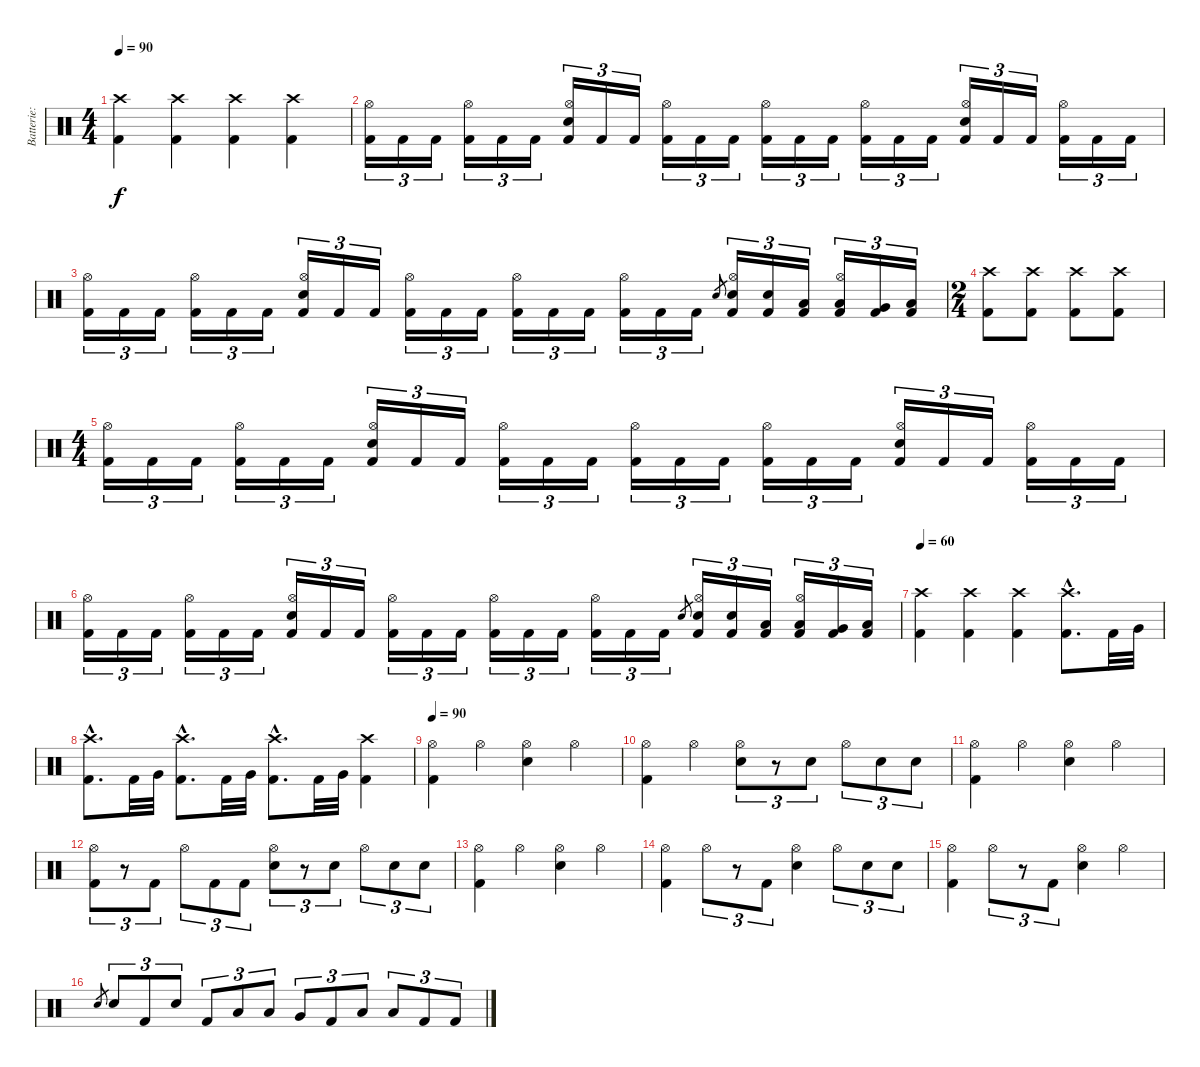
\track ("Batterie: Paul" "Batterie: ") {instrument percussion}
\staff {score}
\articulation defaults
\ts (4 4)
\tempo 90
\clef neutral
\ks c
("Crash high (hit)" "Kick (hit) 2").4{dy f} ("Crash high (hit)" "Kick (hit) 2").4 ("Crash high (hit)" "Kick (hit) 2").4 ("Crash high (hit)" "Kick (hit) 2").4 |
("Hi-Hat (open)" "Kick (hit) 2").16{tu (3 2)} "Kick (hit) 2".16{tu (3 2)} "Kick (hit) 2".16{tu (3 2)} ("Hi-Hat (open)" "Kick (hit) 2").16{tu (3 2)} "Kick (hit) 2".16{tu (3 2)} "Kick (hit) 2".16{tu (3 2)} ("Hi-Hat (open)" "Snare (hit) 2" "Kick (hit) 2").16{tu (3 2)} "Kick (hit) 2".16{tu (3 2)} "Kick (hit) 2".16{tu (3 2)} ("Hi-Hat (open)" "Kick (hit) 2").16{tu (3 2)} "Kick (hit) 2".16{tu (3 2)} "Kick (hit) 2".16{tu (3 2)} ("Hi-Hat (open)" "Kick (hit) 2").16{tu (3 2)} "Kick (hit) 2".16{tu (3 2)} "Kick (hit) 2".16{tu (3 2)} ("Hi-Hat (open)" "Kick (hit) 2").16{tu (3 2)} "Kick (hit) 2".16{tu (3 2)} "Kick (hit) 2".16{tu (3 2)} ("Hi-Hat (open)" "Snare (hit) 2" "Kick (hit) 2").16{tu (3 2)} "Kick (hit) 2".16{tu (3 2)} "Kick (hit) 2".16{tu (3 2)} ("Hi-Hat (open)" "Kick (hit) 2").16{tu (3 2)} "Kick (hit) 2".16{tu (3 2)} "Kick (hit) 2".16{tu (3 2)} |
("Hi-Hat (open)" "Kick (hit) 2").16{tu (3 2)} "Kick (hit) 2".16{tu (3 2)} "Kick (hit) 2".16{tu (3 2)} ("Hi-Hat (open)" "Kick (hit) 2").16{tu (3 2)} "Kick (hit) 2".16{tu (3 2)} "Kick (hit) 2".16{tu (3 2)} ("Hi-Hat (open)" "Snare (hit) 2" "Kick (hit) 2").16{tu (3 2)} "Kick (hit) 2".16{tu (3 2)} "Kick (hit) 2".16{tu (3 2)} ("Hi-Hat (open)" "Kick (hit) 2").16{tu (3 2)} "Kick (hit) 2".16{tu (3 2)} "Kick (hit) 2".16{tu (3 2)} ("Hi-Hat (open)" "Kick (hit) 2").16{tu (3 2)} "Kick (hit) 2".16{tu (3 2)} "Kick (hit) 2".16{tu (3 2)} ("Hi-Hat (open)" "Kick (hit) 2").16{tu (3 2)} "Kick (hit) 2".16{tu (3 2)} "Kick (hit) 2".16{tu (3 2)} "Snare (hit) 2".8{gr} ("Hi-Hat (open)" "Snare (hit) 2" "Kick (hit) 2").16{tu (3 2)} ("Snare (hit) 2" "Kick (hit) 2").16{tu (3 2)} ("Low Tom (hit)" "Kick (hit) 2").16{tu (3 2)} ("Hi-Hat (open)" "Low Tom (hit)" "Kick (hit) 2").16{tu (3 2)} ("Very Low Tom (hit)" "Kick (hit) 2").16{tu (3 2)} ("Low Floor Tom (hit)" "Kick (hit) 2").16{tu (3 2)} |
\ts (2 4)
("Crash high (hit)" "Kick (hit) 2").8 ("Crash high (hit)" "Kick (hit) 2").8 ("Crash high (hit)" "Kick (hit) 2").8 ("Crash high (hit)" "Kick (hit) 2").8 |
\ts (4 4)
("Hi-Hat (open)" "Kick (hit) 2").16{tu (3 2)} "Kick (hit) 2".16{tu (3 2)} "Kick (hit) 2".16{tu (3 2)} ("Hi-Hat (open)" "Kick (hit) 2").16{tu (3 2)} "Kick (hit) 2".16{tu (3 2)} "Kick (hit) 2".16{tu (3 2)} ("Hi-Hat (open)" "Snare (hit) 2" "Kick (hit) 2").16{tu (3 2)} "Kick (hit) 2".16{tu (3 2)} "Kick (hit) 2".16{tu (3 2)} ("Hi-Hat (open)" "Kick (hit) 2").16{tu (3 2)} "Kick (hit) 2".16{tu (3 2)} "Kick (hit) 2".16{tu (3 2)} ("Hi-Hat (open)" "Kick (hit) 2").16{tu (3 2)} "Kick (hit) 2".16{tu (3 2)} "Kick (hit) 2".16{tu (3 2)} ("Hi-Hat (open)" "Kick (hit) 2").16{tu (3 2)} "Kick (hit) 2".16{tu (3 2)} "Kick (hit) 2".16{tu (3 2)} ("Hi-Hat (open)" "Snare (hit) 2" "Kick (hit) 2").16{tu (3 2)} "Kick (hit) 2".16{tu (3 2)} "Kick (hit) 2".16{tu (3 2)} ("Hi-Hat (open)" "Kick (hit) 2").16{tu (3 2)} "Kick (hit) 2".16{tu (3 2)} "Kick (hit) 2".16{tu (3 2)} |
("Hi-Hat (open)" "Kick (hit) 2").16{tu (3 2)} "Kick (hit) 2".16{tu (3 2)} "Kick (hit) 2".16{tu (3 2)} ("Hi-Hat (open)" "Kick (hit) 2").16{tu (3 2)} "Kick (hit) 2".16{tu (3 2)} "Kick (hit) 2".16{tu (3 2)} ("Hi-Hat (open)" "Snare (hit) 2" "Kick (hit) 2").16{tu (3 2)} "Kick (hit) 2".16{tu (3 2)} "Kick (hit) 2".16{tu (3 2)} ("Hi-Hat (open)" "Kick (hit) 2").16{tu (3 2)} "Kick (hit) 2".16{tu (3 2)} "Kick (hit) 2".16{tu (3 2)} ("Hi-Hat (open)" "Kick (hit) 2").16{tu (3 2)} "Kick (hit) 2".16{tu (3 2)} "Kick (hit) 2".16{tu (3 2)} ("Hi-Hat (open)" "Kick (hit) 2").16{tu (3 2)} "Kick (hit) 2".16{tu (3 2)} "Kick (hit) 2".16{tu (3 2)} "Snare (hit) 2".8{gr} ("Hi-Hat (open)" "Snare (hit) 2" "Kick (hit) 2").16{tu (3 2)} ("Snare (hit) 2" "Kick (hit) 2").16{tu (3 2)} ("Low Tom (hit)" "Kick (hit) 2").16{tu (3 2)} ("Hi-Hat (open)" "Low Tom (hit)" "Kick (hit) 2").16{tu (3 2)} ("Very Low Tom (hit)" "Kick (hit) 2").16{tu (3 2)} ("Low Floor Tom (hit)" "Kick (hit) 2").16{tu (3 2)} |
\tempo 60
("Crash high (hit)" "Kick (hit) 2").4 ("Crash high (hit)" "Kick (hit) 2").4 ("Crash high (hit)" "Kick (hit) 2").4 ("Crash high (hit)"{hac} "Kick (hit) 2"{hac}).8{d} "Kick (hit) 2".32 "Very Low Tom (hit)".32 |
("Crash high (hit)"{hac} "Kick (hit) 2"{hac}).8{d} "Kick (hit) 2".32 "Very Low Tom (hit)".32 ("Crash high (hit)"{hac} "Kick (hit) 2"{hac}).8{d} "Kick (hit) 2".32 "Very Low Tom (hit)".32 ("Crash high (hit)"{hac} "Kick (hit) 2"{hac}).8{d} "Kick (hit) 2".32 "Very Low Tom (hit)".32 ("Crash high (hit)" "Kick (hit) 2").4 |
\tempo 90
("Hi-Hat (open)" "Kick (hit) 2").4 "Hi-Hat (open)".4 ("Hi-Hat (open)" "Snare (hit) 2").4 "Hi-Hat (open)".4 |
("Hi-Hat (open)" "Kick (hit) 2").4 "Hi-Hat (open)".4 ("Hi-Hat (open)" "Snare (hit) 2").8{tu (3 2)} r.8{tu (3 2)} "Snare (hit) 2".8{tu (3 2)} "Hi-Hat (open)".8{tu (3 2)} "Snare (hit) 2".8{tu (3 2)} "Snare (hit) 2".8{tu (3 2)} |
("Hi-Hat (open)" "Kick (hit) 2").4 "Hi-Hat (open)".4 ("Hi-Hat (open)" "Snare (hit) 2").4 "Hi-Hat (open)".4 |
("Hi-Hat (open)" "Kick (hit) 2").8{tu (3 2)} r.8{tu (3 2)} "Kick (hit) 2".8{tu (3 2)} "Hi-Hat (open)".8{tu (3 2)} "Kick (hit) 2".8{tu (3 2)} "Kick (hit) 2".8{tu (3 2)} ("Hi-Hat (open)" "Snare (hit) 2").8{tu (3 2)} r.8{tu (3 2)} "Snare (hit) 2".8{tu (3 2)} "Hi-Hat (open)".8{tu (3 2)} "Snare (hit) 2".8{tu (3 2)} "Snare (hit) 2".8{tu (3 2)} |
("Hi-Hat (open)" "Kick (hit) 2").4 "Hi-Hat (open)".4 ("Hi-Hat (open)" "Snare (hit) 2").4 "Hi-Hat (open)".4 |
("Hi-Hat (open)" "Kick (hit) 2").4 "Hi-Hat (open)".8{tu (3 2)} r.8{tu (3 2)} "Kick (hit) 2".8{tu (3 2)} ("Hi-Hat (open)" "Snare (hit) 2").4 "Hi-Hat (open)".8{tu (3 2)} "Snare (hit) 2".8{tu (3 2)} "Snare (hit) 2".8{tu (3 2)} |
("Hi-Hat (open)" "Kick (hit) 2").4 "Hi-Hat (open)".8{tu (3 2)} r.8{tu (3 2)} "Kick (hit) 2".8{tu (3 2)} ("Hi-Hat (open)" "Snare (hit) 2").4 "Hi-Hat (open)".4 |
"Snare (hit) 2".8{gr} "Snare (hit) 2".8{tu (3 2)} "Kick (hit) 2".8{tu (3 2)} "Snare (hit) 2".8{tu (3 2)} "Kick (hit) 2".8{tu (3 2)} "Low Tom (hit)".8{tu (3 2)} "Low Tom (hit)".8{tu (3 2)} "Very Low Tom (hit)".8{tu (3 2)} "Kick (hit) 2".8{tu (3 2)} "Low Floor Tom (hit)".8{tu (3 2)} "Low Floor Tom (hit)".8{tu (3 2)} "Kick (hit) 2".8{tu (3 2)} "Kick (hit) 2".8{tu (3 2)}
